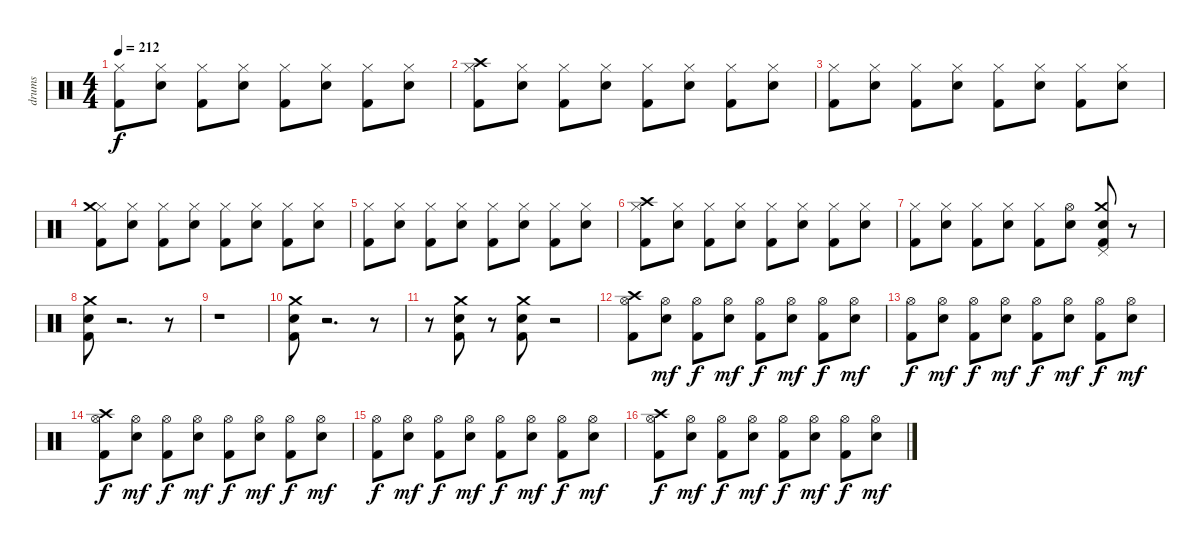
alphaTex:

\track ("drums" "drums") {instrument percussion}
\staff {score}
\articulation defaults
\ts (4 4)
\tempo 212
\clef neutral
\ks c
("Kick (hit) 2" "Hi-Hat (closed)").8{dy f} ("Snare (hit) 2" "Hi-Hat (closed)").8 ("Kick (hit) 2" "Hi-Hat (closed)").8 ("Snare (hit) 2" "Hi-Hat (closed)").8 ("Kick (hit) 2" "Hi-Hat (closed)").8 ("Snare (hit) 2" "Hi-Hat (closed)").8 ("Kick (hit) 2" "Hi-Hat (closed)").8 ("Snare (hit) 2" "Hi-Hat (closed)").8 |
("Kick (hit) 2" "Hi-Hat (closed)" "Crash high (hit)").8 ("Snare (hit) 2" "Hi-Hat (closed)").8 ("Kick (hit) 2" "Hi-Hat (closed)").8 ("Snare (hit) 2" "Hi-Hat (closed)").8 ("Kick (hit) 2" "Hi-Hat (closed)").8 ("Snare (hit) 2" "Hi-Hat (closed)").8 ("Kick (hit) 2" "Hi-Hat (closed)").8 ("Snare (hit) 2" "Hi-Hat (closed)").8 |
("Kick (hit) 2" "Hi-Hat (closed)").8 ("Snare (hit) 2" "Hi-Hat (closed)").8 ("Kick (hit) 2" "Hi-Hat (closed)").8 ("Snare (hit) 2" "Hi-Hat (closed)").8 ("Kick (hit) 2" "Hi-Hat (closed)").8 ("Snare (hit) 2" "Hi-Hat (closed)").8 ("Kick (hit) 2" "Hi-Hat (closed)").8 ("Snare (hit) 2" "Hi-Hat (closed)").8 |
("Kick (hit) 2" "Hi-Hat (closed)" "Crash medium (hit)").8 ("Snare (hit) 2" "Hi-Hat (closed)").8 ("Kick (hit) 2" "Hi-Hat (closed)").8 ("Snare (hit) 2" "Hi-Hat (closed)").8 ("Kick (hit) 2" "Hi-Hat (closed)").8 ("Snare (hit) 2" "Hi-Hat (closed)").8 ("Kick (hit) 2" "Hi-Hat (closed)").8 ("Snare (hit) 2" "Hi-Hat (closed)").8 |
("Kick (hit) 2" "Hi-Hat (closed)").8 ("Snare (hit) 2" "Hi-Hat (closed)").8 ("Kick (hit) 2" "Hi-Hat (closed)").8 ("Snare (hit) 2" "Hi-Hat (closed)").8 ("Kick (hit) 2" "Hi-Hat (closed)").8 ("Snare (hit) 2" "Hi-Hat (closed)").8 ("Kick (hit) 2" "Hi-Hat (closed)").8 ("Snare (hit) 2" "Hi-Hat (closed)").8 |
("Kick (hit) 2" "Hi-Hat (closed)" "Crash high (hit)").8 ("Snare (hit) 2" "Hi-Hat (closed)").8 ("Kick (hit) 2" "Hi-Hat (closed)").8 ("Snare (hit) 2" "Hi-Hat (closed)").8 ("Kick (hit) 2" "Hi-Hat (closed)").8 ("Snare (hit) 2" "Hi-Hat (closed)").8 ("Kick (hit) 2" "Hi-Hat (closed)").8 ("Snare (hit) 2" "Hi-Hat (closed)").8 |
("Kick (hit) 2" "Hi-Hat (closed)").8 ("Snare (hit) 2" "Hi-Hat (closed)").8 ("Kick (hit) 2" "Hi-Hat (closed)").8 ("Snare (hit) 2" "Hi-Hat (closed)").8 ("Kick (hit) 2" "Hi-Hat (closed)").8 ("Snare (hit) 2" "Hi-Hat (open)").8 ("Kick (hit) 2" "Snare (hit) 2" "Pedal Hi-Hat (hit)" "Crash medium (hit)").8 r.8 |
("Kick (hit) 2" "Snare (hit) 2" "Crash medium (hit)").8 r.2{d} r.8 |
r.1 |
("Kick (hit) 2" "Snare (hit) 2" "Crash medium (hit)").8 r.2{d} r.8 |
r.8 ("Kick (hit) 2" "Snare (hit) 2" "Crash medium (hit)").8 r.8 ("Kick (hit) 2" "Snare (hit) 2" "Crash medium (hit)").8 r.2 |
("Kick (hit) 2" "Hi-Hat (open)" "Crash high (hit)").8 ("Snare (hit) 2" "Hi-Hat (open)").8{dy mf} ("Kick (hit) 2" "Hi-Hat (open)").8{dy f} ("Snare (hit) 2" "Hi-Hat (open)").8{dy mf} ("Kick (hit) 2" "Hi-Hat (open)").8{dy f} ("Snare (hit) 2" "Hi-Hat (open)").8{dy mf} ("Kick (hit) 2" "Hi-Hat (open)").8{dy f} ("Snare (hit) 2" "Hi-Hat (open)").8{dy mf} |
("Kick (hit) 2" "Hi-Hat (open)").8{dy f} ("Snare (hit) 2" "Hi-Hat (open)").8{dy mf} ("Kick (hit) 2" "Hi-Hat (open)").8{dy f} ("Snare (hit) 2" "Hi-Hat (open)").8{dy mf} ("Kick (hit) 2" "Hi-Hat (open)").8{dy f} ("Snare (hit) 2" "Hi-Hat (open)").8{dy mf} ("Kick (hit) 2" "Hi-Hat (open)").8{dy f} ("Snare (hit) 2" "Hi-Hat (open)").8{dy mf} |
("Kick (hit) 2" "Hi-Hat (open)" "Crash high (hit)").8{dy f} ("Snare (hit) 2" "Hi-Hat (open)").8{dy mf} ("Kick (hit) 2" "Hi-Hat (open)").8{dy f} ("Snare (hit) 2" "Hi-Hat (open)").8{dy mf} ("Kick (hit) 2" "Hi-Hat (open)").8{dy f} ("Snare (hit) 2" "Hi-Hat (open)").8{dy mf} ("Kick (hit) 2" "Hi-Hat (open)").8{dy f} ("Snare (hit) 2" "Hi-Hat (open)").8{dy mf} |
("Kick (hit) 2" "Hi-Hat (open)").8{dy f} ("Snare (hit) 2" "Hi-Hat (open)").8{dy mf} ("Kick (hit) 2" "Hi-Hat (open)").8{dy f} ("Snare (hit) 2" "Hi-Hat (open)").8{dy mf} ("Kick (hit) 2" "Hi-Hat (open)").8{dy f} ("Snare (hit) 2" "Hi-Hat (open)").8{dy mf} ("Kick (hit) 2" "Hi-Hat (open)").8{dy f} ("Snare (hit) 2" "Hi-Hat (open)").8{dy mf} |
("Kick (hit) 2" "Hi-Hat (open)" "Crash high (hit)").8{dy f} ("Snare (hit) 2" "Hi-Hat (open)").8{dy mf} ("Kick (hit) 2" "Hi-Hat (open)").8{dy f} ("Snare (hit) 2" "Hi-Hat (open)").8{dy mf} ("Kick (hit) 2" "Hi-Hat (open)").8{dy f} ("Snare (hit) 2" "Hi-Hat (open)").8{dy mf} ("Kick (hit) 2" "Hi-Hat (open)").8{dy f} ("Snare (hit) 2" "Hi-Hat (open)").8{dy mf}
